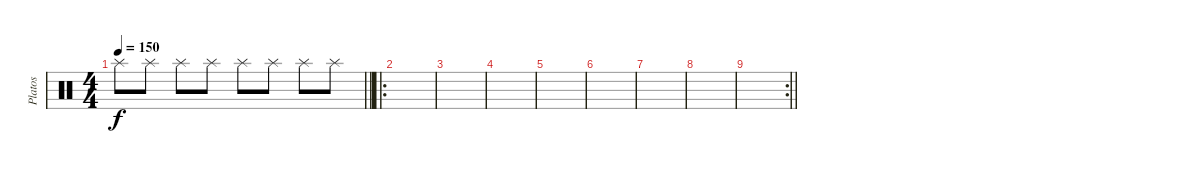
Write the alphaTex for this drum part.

\track ("Platos" "Platos") {instrument percussion}
\staff {score}
\articulation defaults
\ts (4 4)
\tempo 150
\clef neutral
\barLineRight lightlight
\ks c "Splash (hit)".8{dy f} "Splash (hit)".8 "Splash (hit)".8 "Splash (hit)".8 "Splash (hit)".8 "Splash (hit)".8 "Splash (hit)".8 "Splash (hit)".8
|
\ro
|
|
|
|
|
|
|
\rc 2
\barLineRight lightlight
